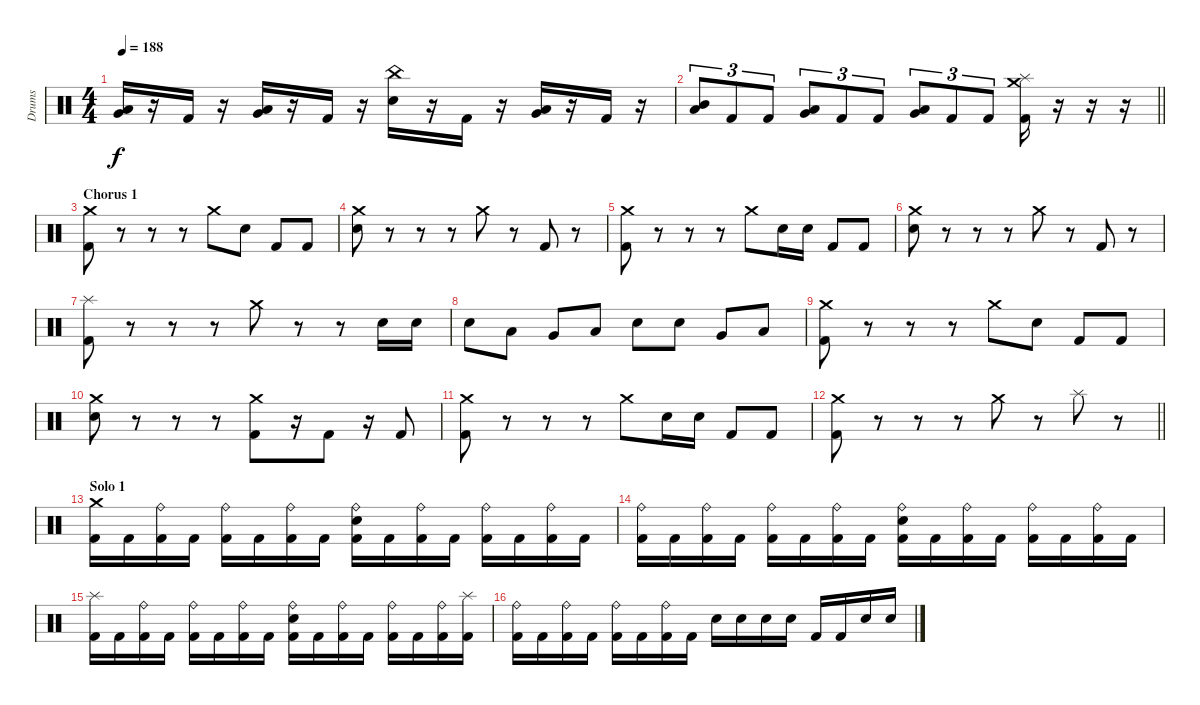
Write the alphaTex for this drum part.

\track ("Drums" "Drums") {instrument percussion}
\staff {score}
\articulation defaults
\ts (4 4)
\tempo 188
\clef neutral
\ks c
("Low Tom (hit)" "Very Low Tom (hit)").16{dy f} r.16 "Kick (hit) 2".16 r.16 ("Low Tom (hit)" "Very Low Tom (hit)").16 r.16 "Kick (hit) 2".16 r.16 ("China (hit)" "Snare (hit) 2").16 r.16 "Kick (hit) 2".16 r.16 ("Low Tom (hit)" "Very Low Tom (hit)").16 r.16 "Kick (hit) 2".16 r.16 |
\barLineRight lightlight
("Mid Tom (hit)" "Low Tom (hit)").8{tu (3 2)} "Kick (hit) 2".8{tu (3 2)} "Kick (hit) 2".8{tu (3 2)} ("Low Tom (hit)" "Very Low Tom (hit)").8{tu (3 2)} "Kick (hit) 2".8{tu (3 2)} "Kick (hit) 2".8{tu (3 2)} ("Very Low Tom (hit)" "Low Floor Tom (hit)").8{tu (3 2)} "Kick (hit) 2".8{tu (3 2)} "Kick (hit) 2".8{tu (3 2)} ("Crash medium (hit)" "Splash (hit)" "Kick (hit) 2").16 r.16 r.16 r.16 |
\section ("" "Chorus 1")
("Crash medium (hit)" "Kick (hit) 2").8 r.8 r.8 r.8 "Crash medium (hit)".8 "Snare (hit) 2".8 "Kick (hit) 2".8 "Kick (hit) 2".8 |
("Crash medium (hit)" "Snare (hit) 2").8 r.8 r.8 r.8 "Crash medium (hit)".8 r.8 "Kick (hit) 2".8 r.8 |
("Crash medium (hit)" "Kick (hit) 2").8 r.8 r.8 r.8 "Crash medium (hit)".8 "Snare (hit) 2".16 "Snare (hit) 2".16 "Kick (hit) 2".8 "Kick (hit) 2".8 |
("Crash medium (hit)" "Snare (hit) 2").8 r.8 r.8 r.8 "Crash medium (hit)".8 r.8 "Kick (hit) 2".8 r.8 |
("Splash (hit)" "Kick (hit) 2").8 r.8 r.8 r.8 "Crash medium (hit)".8 r.8 r.8 "Snare (hit) 2".16 "Snare (hit) 2".16 |
"Snare (hit) 2".8 "Low Tom (hit)".8 "Very Low Tom (hit)".8 "Low Floor Tom (hit)".8 "Snare (hit) 2".8 "Snare (hit) 2".8 "Very Low Tom (hit)".8 "Low Floor Tom (hit)".8 |
("Crash medium (hit)" "Kick (hit) 2").8 r.8 r.8 r.8 "Crash medium (hit)".8 "Snare (hit) 2".8 "Kick (hit) 2".8 "Kick (hit) 2".8 |
("Crash medium (hit)" "Snare (hit) 2").8 r.8 r.8 r.8 ("Crash medium (hit)" "Kick (hit) 2").8 r.16 "Kick (hit) 2".8 r.16 "Kick (hit) 2".8 |
("Crash medium (hit)" "Kick (hit) 2").8 r.8 r.8 r.8 "Crash medium (hit)".8 "Snare (hit) 2".16 "Snare (hit) 2".16 "Kick (hit) 2".8 "Kick (hit) 2".8 |
\barLineRight lightlight
("Crash medium (hit)" "Kick (hit) 2").8 r.8 r.8 r.8 "Crash medium (hit)".8 r.8 "Splash (hit)".8 r.8 |
\section ("" "Solo 1")
("Crash medium (hit)" "Kick (hit) 2").16 "Kick (hit) 2".16 ("Ride (bell)" "Kick (hit) 2").16 "Kick (hit) 2".16 ("Ride (bell)" "Kick (hit) 2").16 "Kick (hit) 2".16 ("Ride (bell)" "Kick (hit) 2").16 "Kick (hit) 2".16 ("Ride (bell)" "Snare (hit) 2" "Kick (hit) 2").16 "Kick (hit) 2".16 ("Ride (bell)" "Kick (hit) 2").16 "Kick (hit) 2".16 ("Ride (bell)" "Kick (hit) 2").16 "Kick (hit) 2".16 ("Ride (bell)" "Kick (hit) 2").16 "Kick (hit) 2".16 |
("Ride (bell)" "Kick (hit) 2").16 "Kick (hit) 2".16 ("Ride (bell)" "Kick (hit) 2").16 "Kick (hit) 2".16 ("Ride (bell)" "Kick (hit) 2").16 "Kick (hit) 2".16 ("Ride (bell)" "Kick (hit) 2").16 "Kick (hit) 2".16 ("Ride (bell)" "Snare (hit) 2" "Kick (hit) 2").16 "Kick (hit) 2".16 ("Ride (bell)" "Kick (hit) 2").16 "Kick (hit) 2".16 ("Ride (bell)" "Kick (hit) 2").16 "Kick (hit) 2".16 ("Ride (bell)" "Kick (hit) 2").16 "Kick (hit) 2".16 |
("Splash (hit)" "Kick (hit) 2").16 "Kick (hit) 2".16 ("Ride (bell)" "Kick (hit) 2").16 "Kick (hit) 2".16 ("Ride (bell)" "Kick (hit) 2").16 "Kick (hit) 2".16 ("Ride (bell)" "Kick (hit) 2").16 "Kick (hit) 2".16 ("Ride (bell)" "Snare (hit) 2" "Kick (hit) 2").16 "Kick (hit) 2".16 ("Ride (bell)" "Kick (hit) 2").16 "Kick (hit) 2".16 ("Ride (bell)" "Kick (hit) 2").16 "Kick (hit) 2".16 ("Ride (bell)" "Kick (hit) 2").16 ("Splash (hit)" "Kick (hit) 2").16 |
("Ride (bell)" "Kick (hit) 2").16 "Kick (hit) 2".16 ("Ride (bell)" "Kick (hit) 2").16 "Kick (hit) 2".16 ("Ride (bell)" "Kick (hit) 2").16 "Kick (hit) 2".16 ("Ride (bell)" "Kick (hit) 2").16 "Kick (hit) 2".16 "Snare (hit) 2".16 "Snare (hit) 2".16 "Snare (hit) 2".16 "Snare (hit) 2".16 "Kick (hit) 2".16 "Kick (hit) 2".16 "Snare (hit) 2".16 "Snare (hit) 2".16
